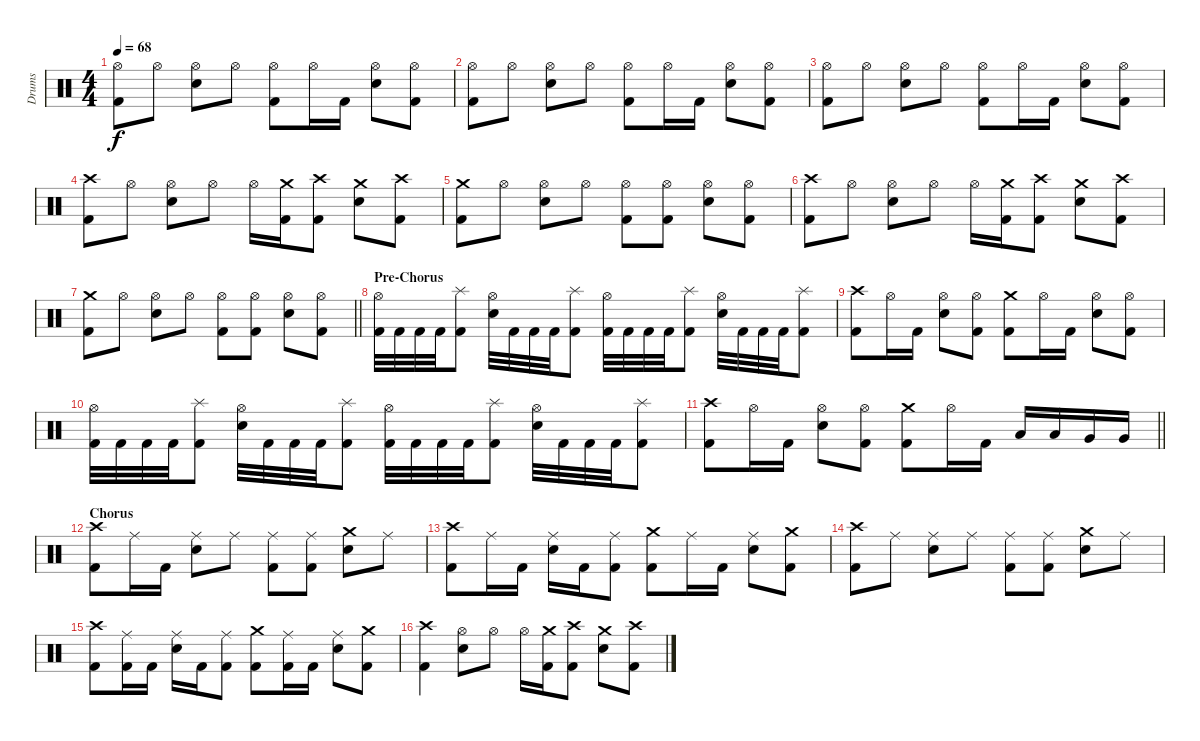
\track ("Drums" "Drums") {instrument percussion}
\staff {score}
\articulation defaults
\ts (4 4)
\tempo 68
\clef neutral
\ks c
("Hi-Hat (open)" "Kick (hit) 2").8{dy f} "Hi-Hat (open)".8 ("Hi-Hat (open)" "Snare (hit) 2").8 "Hi-Hat (open)".8 ("Hi-Hat (open)" "Kick (hit) 2").8 "Hi-Hat (open)".16 "Kick (hit) 2".16 ("Hi-Hat (open)" "Snare (hit) 2").8 ("Hi-Hat (open)" "Kick (hit) 2").8 |
("Hi-Hat (open)" "Kick (hit) 2").8 "Hi-Hat (open)".8 ("Hi-Hat (open)" "Snare (hit) 2").8 "Hi-Hat (open)".8 ("Hi-Hat (open)" "Kick (hit) 2").8 "Hi-Hat (open)".16 "Kick (hit) 2".16 ("Hi-Hat (open)" "Snare (hit) 2").8 ("Hi-Hat (open)" "Kick (hit) 2").8 |
("Hi-Hat (open)" "Kick (hit) 2").8 "Hi-Hat (open)".8 ("Hi-Hat (open)" "Snare (hit) 2").8 "Hi-Hat (open)".8 ("Hi-Hat (open)" "Kick (hit) 2").8 "Hi-Hat (open)".16 "Kick (hit) 2".16 ("Hi-Hat (open)" "Snare (hit) 2").8 ("Hi-Hat (open)" "Kick (hit) 2").8 |
("Crash high (hit)" "Kick (hit) 2").8 "Hi-Hat (open)".8 ("Hi-Hat (open)" "Snare (hit) 2").8 "Hi-Hat (open)".8 "Hi-Hat (open)".16 ("Crash medium (hit)" "Kick (hit) 2").16 ("Crash high (hit)" "Kick (hit) 2").8 ("Crash medium (hit)" "Snare (hit) 2").8 ("Crash high (hit)" "Kick (hit) 2").8 |
("Crash medium (hit)" "Kick (hit) 2").8 "Hi-Hat (open)".8 ("Hi-Hat (open)" "Snare (hit) 2").8 "Hi-Hat (open)".8 ("Hi-Hat (open)" "Kick (hit) 2").8 ("Hi-Hat (open)" "Kick (hit) 2").8 ("Hi-Hat (open)" "Snare (hit) 2").8 ("Hi-Hat (open)" "Kick (hit) 2").8 |
("Crash high (hit)" "Kick (hit) 2").8 "Hi-Hat (open)".8 ("Hi-Hat (open)" "Snare (hit) 2").8 "Hi-Hat (open)".8 "Hi-Hat (open)".16 ("Crash medium (hit)" "Kick (hit) 2").16 ("Crash high (hit)" "Kick (hit) 2").8 ("Crash medium (hit)" "Snare (hit) 2").8 ("Crash high (hit)" "Kick (hit) 2").8 |
\barLineRight lightlight
("Crash medium (hit)" "Kick (hit) 2").8 "Hi-Hat (open)".8 ("Hi-Hat (open)" "Snare (hit) 2").8 "Hi-Hat (open)".8 ("Hi-Hat (open)" "Kick (hit) 2").8 ("Hi-Hat (open)" "Kick (hit) 2").8 ("Hi-Hat (open)" "Snare (hit) 2").8 ("Hi-Hat (open)" "Kick (hit) 2").8 |
\section ("" "Pre-Chorus")
("Hi-Hat (open)" "Kick (hit) 2").32 "Kick (hit) 2".32 "Kick (hit) 2".32 "Kick (hit) 2".32 ("Splash (hit)" "Kick (hit) 2").8 ("Hi-Hat (open)" "Snare (hit) 2").32 "Kick (hit) 2".32 "Kick (hit) 2".32 "Kick (hit) 2".32 ("Splash (hit)" "Kick (hit) 2").8 ("Hi-Hat (open)" "Kick (hit) 2").32 "Kick (hit) 2".32 "Kick (hit) 2".32 "Kick (hit) 2".32 ("Splash (hit)" "Kick (hit) 2").8 ("Hi-Hat (open)" "Snare (hit) 2").32 "Kick (hit) 2".32 "Kick (hit) 2".32 "Kick (hit) 2".32 ("Splash (hit)" "Kick (hit) 2").8 |
("Crash high (hit)" "Kick (hit) 2").8 "Hi-Hat (open)".16 "Kick (hit) 2".16 ("Hi-Hat (open)" "Snare (hit) 2").8 ("Hi-Hat (open)" "Kick (hit) 2").8 ("Crash medium (hit)" "Kick (hit) 2").8 "Hi-Hat (open)".16 "Kick (hit) 2".16 ("Hi-Hat (open)" "Snare (hit) 2").8 ("Hi-Hat (open)" "Kick (hit) 2").8 |
("Hi-Hat (open)" "Kick (hit) 2").32 "Kick (hit) 2".32 "Kick (hit) 2".32 "Kick (hit) 2".32 ("Splash (hit)" "Kick (hit) 2").8 ("Hi-Hat (open)" "Snare (hit) 2").32 "Kick (hit) 2".32 "Kick (hit) 2".32 "Kick (hit) 2".32 ("Splash (hit)" "Kick (hit) 2").8 ("Hi-Hat (open)" "Kick (hit) 2").32 "Kick (hit) 2".32 "Kick (hit) 2".32 "Kick (hit) 2".32 ("Splash (hit)" "Kick (hit) 2").8 ("Hi-Hat (open)" "Snare (hit) 2").32 "Kick (hit) 2".32 "Kick (hit) 2".32 "Kick (hit) 2".32 ("Splash (hit)" "Kick (hit) 2").8 |
\barLineRight lightlight
("Crash high (hit)" "Kick (hit) 2").8 "Hi-Hat (open)".16 "Kick (hit) 2".16 ("Hi-Hat (open)" "Snare (hit) 2").8 ("Hi-Hat (open)" "Kick (hit) 2").8 ("Crash medium (hit)" "Kick (hit) 2").8 "Hi-Hat (open)".16 "Kick (hit) 2".16 "Low Tom (hit)".16 "Low Tom (hit)".16 "Very Low Tom (hit)".16 "Very Low Tom (hit)".16 |
\section ("" "Chorus")
("Crash high (hit)" "Kick (hit) 2").8 "Ride (middle)".16 "Kick (hit) 2".16 ("Ride (middle)" "Snare (hit) 2").8 "Ride (middle)".8 ("Ride (middle)" "Kick (hit) 2").8 ("Ride (middle)" "Kick (hit) 2").8 ("Crash medium (hit)" "Snare (hit) 2").8 "Ride (middle)".8 |
("Crash high (hit)" "Kick (hit) 2").8 "Ride (middle)".16 "Kick (hit) 2".16 ("Ride (middle)" "Snare (hit) 2").16 "Kick (hit) 2".16 ("Ride (middle)" "Kick (hit) 2").8 ("Crash medium (hit)" "Kick (hit) 2").8 "Ride (middle)".16 "Kick (hit) 2".16 ("Ride (middle)" "Snare (hit) 2").8 ("Crash medium (hit)" "Kick (hit) 2").8 |
("Crash high (hit)" "Kick (hit) 2").8 "Ride (middle)".8 ("Ride (middle)" "Snare (hit) 2").8 "Ride (middle)".8 ("Ride (middle)" "Kick (hit) 2").8 ("Ride (middle)" "Kick (hit) 2").8 ("Crash medium (hit)" "Snare (hit) 2").8 "Ride (middle)".8 |
("Crash high (hit)" "Kick (hit) 2").8 ("Ride (middle)" "Kick (hit) 2").16 "Kick (hit) 2".16 ("Ride (middle)" "Snare (hit) 2").16 "Kick (hit) 2".16 ("Ride (middle)" "Kick (hit) 2").8 ("Crash medium (hit)" "Kick (hit) 2").8 ("Ride (middle)" "Kick (hit) 2").16 "Kick (hit) 2".16 ("Ride (middle)" "Snare (hit) 2").8 ("Crash medium (hit)" "Kick (hit) 2").8 |
("Crash high (hit)" "Kick (hit) 2").4 ("Hi-Hat (open)" "Snare (hit) 2").8 "Hi-Hat (open)".8 "Hi-Hat (open)".16 ("Crash medium (hit)" "Kick (hit) 2").16 ("Crash high (hit)" "Kick (hit) 2").8 ("Crash medium (hit)" "Snare (hit) 2").8 ("Crash high (hit)" "Kick (hit) 2").8
